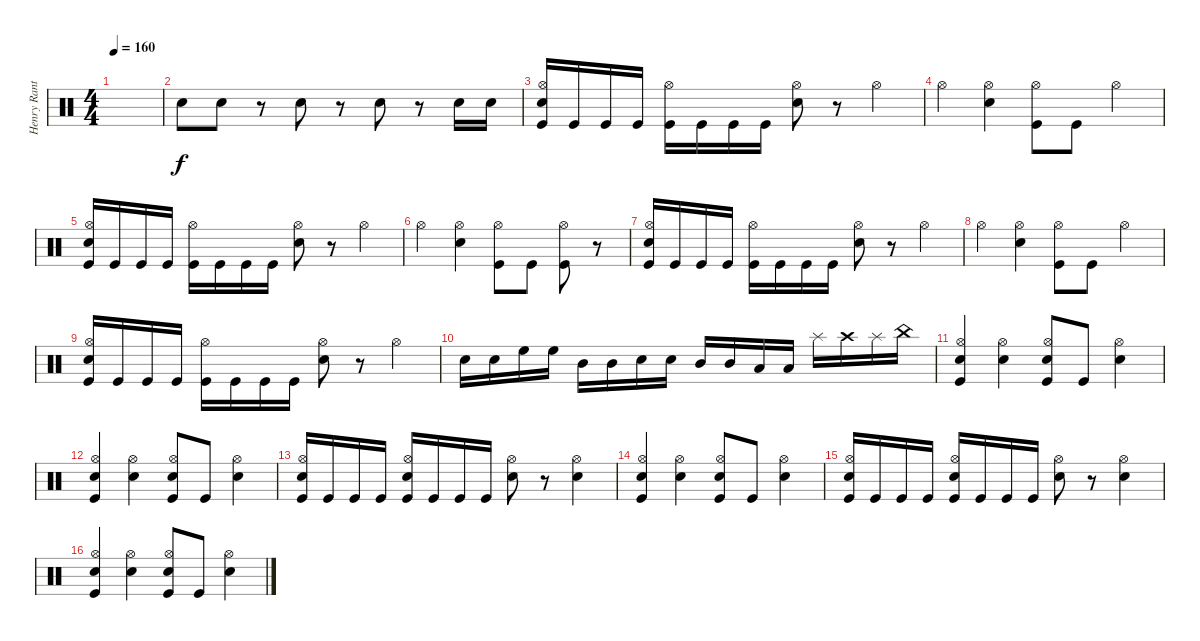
\track ("Henry Ranta" "Henry Rant") {instrument percussion}
\staff {score}
\articulation defaults
\ts (4 4)
\tempo 160
\clef neutral
\ks c
|
"Snare (hit) 2".8 "Snare (hit) 2".8 r.8 "Snare (hit) 2".8 r.8 "Snare (hit) 2".8 r.8 "Snare (hit) 2".16 "Snare (hit) 2".16 |
("Hi-Hat (open)" "Snare (hit) 2" "Kick (hit)").16 "Kick (hit)".16 "Kick (hit)".16 "Kick (hit)".16 ("Hi-Hat (open)" "Kick (hit)").16 "Kick (hit)".16 "Kick (hit)".16 "Kick (hit)".16 ("Hi-Hat (open)" "Snare (hit) 2").8 r.8 "Hi-Hat (open)".4 |
"Hi-Hat (open)".4 ("Hi-Hat (open)" "Snare (hit) 2").4 ("Hi-Hat (open)" "Kick (hit)").8 "Kick (hit)".8 "Hi-Hat (open)".4 |
("Hi-Hat (open)" "Snare (hit) 2" "Kick (hit)").16 "Kick (hit)".16 "Kick (hit)".16 "Kick (hit)".16 ("Hi-Hat (open)" "Kick (hit)").16 "Kick (hit)".16 "Kick (hit)".16 "Kick (hit)".16 ("Hi-Hat (open)" "Snare (hit) 2").8 r.8 "Hi-Hat (open)".4 |
"Hi-Hat (open)".4 ("Hi-Hat (open)" "Snare (hit) 2").4 ("Hi-Hat (open)" "Kick (hit)").8 "Kick (hit)".8 ("Hi-Hat (open)" "Kick (hit)").8 r.8 |
("Hi-Hat (open)" "Snare (hit) 2" "Kick (hit)").16 "Kick (hit)".16 "Kick (hit)".16 "Kick (hit)".16 ("Hi-Hat (open)" "Kick (hit)").16 "Kick (hit)".16 "Kick (hit)".16 "Kick (hit)".16 ("Hi-Hat (open)" "Snare (hit) 2").8 r.8 "Hi-Hat (open)".4 |
"Hi-Hat (open)".4 ("Hi-Hat (open)" "Snare (hit) 2").4 ("Hi-Hat (open)" "Kick (hit)").8 "Kick (hit)".8 "Hi-Hat (open)".4 |
("Hi-Hat (open)" "Snare (hit) 2" "Kick (hit)").16 "Kick (hit)".16 "Kick (hit)".16 "Kick (hit)".16 ("Hi-Hat (open)" "Kick (hit)").16 "Kick (hit)".16 "Kick (hit)".16 "Kick (hit)".16 ("Hi-Hat (open)" "Snare (hit) 2").8 r.8 "Hi-Hat (open)".4 |
"Snare (hit) 2".16 "Snare (hit) 2".16 "High Floor Tom (hit)".16 "High Floor Tom (hit)".16 "Mid Tom (hit)".16 "Mid Tom (hit)".16 "Snare (hit) 2".16 "Snare (hit) 2".16 "Mid Tom (hit)".16 "Mid Tom (hit)".16 "Low Tom (hit)".16 "Low Tom (hit)".16 "Splash (hit)".16 "Crash high (hit)".16 "Splash (hit)".16 "China (hit)".16 |
("Hi-Hat (open)" "Snare (hit) 2" "Kick (hit)").4 ("Hi-Hat (open)" "Snare (hit) 2").4 ("Hi-Hat (open)" "Snare (hit) 2" "Kick (hit)").8 "Kick (hit)".8 ("Hi-Hat (open)" "Snare (hit) 2").4 |
("Hi-Hat (open)" "Snare (hit) 2" "Kick (hit)").4 ("Hi-Hat (open)" "Snare (hit) 2").4 ("Hi-Hat (open)" "Snare (hit) 2" "Kick (hit)").8 "Kick (hit)".8 ("Hi-Hat (open)" "Snare (hit) 2").4 |
("Hi-Hat (open)" "Snare (hit) 2" "Kick (hit)").16 "Kick (hit)".16 "Kick (hit)".16 "Kick (hit)".16 ("Hi-Hat (open)" "Snare (hit) 2" "Kick (hit)").16 "Kick (hit)".16 "Kick (hit)".16 "Kick (hit)".16 ("Hi-Hat (open)" "Snare (hit) 2").8 r.8 ("Hi-Hat (open)" "Snare (hit) 2").4 |
("Hi-Hat (open)" "Snare (hit) 2" "Kick (hit)").4 ("Hi-Hat (open)" "Snare (hit) 2").4 ("Hi-Hat (open)" "Snare (hit) 2" "Kick (hit)").8 "Kick (hit)".8 ("Hi-Hat (open)" "Snare (hit) 2").4 |
("Hi-Hat (open)" "Snare (hit) 2" "Kick (hit)").16 "Kick (hit)".16 "Kick (hit)".16 "Kick (hit)".16 ("Hi-Hat (open)" "Snare (hit) 2" "Kick (hit)").16 "Kick (hit)".16 "Kick (hit)".16 "Kick (hit)".16 ("Hi-Hat (open)" "Snare (hit) 2").8 r.8 ("Hi-Hat (open)" "Snare (hit) 2").4 |
("Hi-Hat (open)" "Snare (hit) 2" "Kick (hit)").4 ("Hi-Hat (open)" "Snare (hit) 2").4 ("Hi-Hat (open)" "Snare (hit) 2" "Kick (hit)").8 "Kick (hit)".8 ("Hi-Hat (open)" "Snare (hit) 2").4
